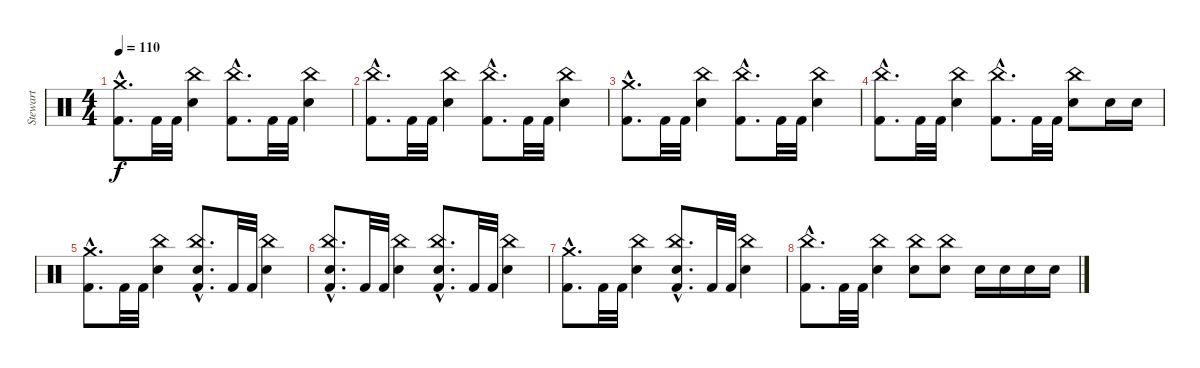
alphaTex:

\track ("Stewart" "Stewart") {instrument percussion}
\staff {score}
\articulation defaults
\ts (4 4)
\tempo 110
\clef neutral
\ks c
("Crash medium (hit)"{hac} "Kick (hit) 2"{hac}).8{d dy f} "Kick (hit) 2".32 "Kick (hit) 2".32 ("China (hit)" "Electric Snare (hit)").4 ("China (hit)"{hac} "Kick (hit) 2"{hac}).8{d} "Kick (hit) 2".32 "Kick (hit) 2".32 ("China (hit)" "Electric Snare (hit)").4 |
("China (hit)"{hac} "Kick (hit) 2"{hac}).8{d} "Kick (hit) 2".32 "Kick (hit) 2".32 ("China (hit)" "Electric Snare (hit)").4 ("China (hit)"{hac} "Kick (hit) 2"{hac}).8{d} "Kick (hit) 2".32 "Kick (hit) 2".32 ("China (hit)" "Electric Snare (hit)").4 |
("Crash medium (hit)"{hac} "Kick (hit) 2"{hac}).8{d} "Kick (hit) 2".32 "Kick (hit) 2".32 ("China (hit)" "Electric Snare (hit)").4 ("China (hit)"{hac} "Kick (hit) 2"{hac}).8{d} "Kick (hit) 2".32 "Kick (hit) 2".32 ("China (hit)" "Electric Snare (hit)").4 |
("China (hit)"{hac} "Kick (hit) 2"{hac}).8{d} "Kick (hit) 2".32 "Kick (hit) 2".32 ("China (hit)" "Electric Snare (hit)").4 ("China (hit)"{hac} "Kick (hit) 2"{hac}).8{d} "Kick (hit) 2".32 "Kick (hit) 2".32 ("China (hit)" "Electric Snare (hit)").8 "Electric Snare (hit)".16 "Electric Snare (hit)".16 |
("Crash medium (hit)"{hac} "Kick (hit) 2"{hac}).8{d} "Kick (hit) 2".32 "Kick (hit) 2".32 ("China (hit)" "Electric Snare (hit)").4 ("China (hit)"{hac} "Electric Snare (hit)"{hac} "Kick (hit) 2"{hac}).8{d} "Kick (hit) 2".32 "Kick (hit) 2".32 ("China (hit)" "Electric Snare (hit)").4 |
("China (hit)"{hac} "Electric Snare (hit)"{hac} "Kick (hit) 2"{hac}).8{d} "Kick (hit) 2".32 "Kick (hit) 2".32 ("China (hit)" "Electric Snare (hit)").4 ("China (hit)"{hac} "Electric Snare (hit)"{hac} "Kick (hit) 2"{hac}).8{d} "Kick (hit) 2".32 "Kick (hit) 2".32 ("China (hit)" "Electric Snare (hit)").4 |
("Crash medium (hit)"{hac} "Kick (hit) 2"{hac}).8{d} "Kick (hit) 2".32 "Kick (hit) 2".32 ("China (hit)" "Electric Snare (hit)").4 ("China (hit)"{hac} "Electric Snare (hit)"{hac} "Kick (hit) 2"{hac}).8{d} "Kick (hit) 2".32 "Kick (hit) 2".32 ("China (hit)" "Electric Snare (hit)").4 |
("China (hit)"{hac} "Kick (hit) 2"{hac}).8{d} "Kick (hit) 2".32 "Kick (hit) 2".32 ("China (hit)" "Electric Snare (hit)").4 ("China (hit)" "Electric Snare (hit)").8 ("China (hit)" "Electric Snare (hit)").8 "Electric Snare (hit)".16 "Electric Snare (hit)".16 "Electric Snare (hit)".16 "Electric Snare (hit)".16
